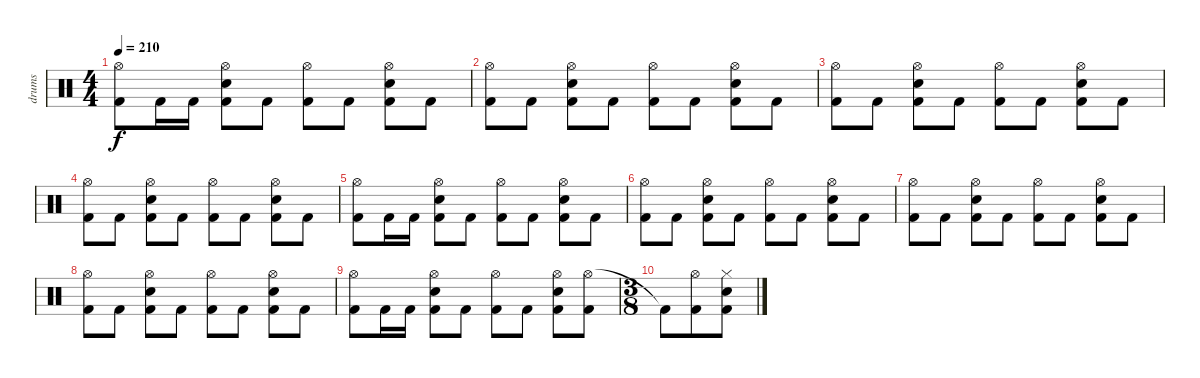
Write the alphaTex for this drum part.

\track ("drums" "drums") {solo instrument percussion}
\staff {score}
\articulation defaults
\ts (4 4)
\tempo 210
\clef neutral
\ks c
("Hi-Hat (open)" "Kick (hit) 2").8{dy f} "Kick (hit) 2".16 "Kick (hit) 2".16 ("Hi-Hat (open)" "Electric Snare (hit)" "Kick (hit) 2").8 "Kick (hit) 2".8 ("Hi-Hat (open)" "Kick (hit) 2").8 "Kick (hit) 2".8 ("Hi-Hat (open)" "Electric Snare (hit)" "Kick (hit) 2").8 "Kick (hit) 2".8 |
("Hi-Hat (open)" "Kick (hit) 2").8 "Kick (hit) 2".8 ("Hi-Hat (open)" "Electric Snare (hit)" "Kick (hit) 2").8 "Kick (hit) 2".8 ("Hi-Hat (open)" "Kick (hit) 2").8 "Kick (hit) 2".8 ("Hi-Hat (open)" "Electric Snare (hit)" "Kick (hit) 2").8 "Kick (hit) 2".8 |
("Hi-Hat (open)" "Kick (hit) 2").8 "Kick (hit) 2".8 ("Hi-Hat (open)" "Electric Snare (hit)" "Kick (hit) 2").8 "Kick (hit) 2".8 ("Hi-Hat (open)" "Kick (hit) 2").8 "Kick (hit) 2".8 ("Hi-Hat (open)" "Electric Snare (hit)" "Kick (hit) 2").8 "Kick (hit) 2".8 |
("Hi-Hat (open)" "Kick (hit) 2").8 "Kick (hit) 2".8 ("Hi-Hat (open)" "Electric Snare (hit)" "Kick (hit) 2").8 "Kick (hit) 2".8 ("Hi-Hat (open)" "Kick (hit) 2").8 "Kick (hit) 2".8 ("Hi-Hat (open)" "Electric Snare (hit)" "Kick (hit) 2").8 "Kick (hit) 2".8 |
("Hi-Hat (open)" "Kick (hit) 2").8 "Kick (hit) 2".16 "Kick (hit) 2".16 ("Hi-Hat (open)" "Electric Snare (hit)" "Kick (hit) 2").8 "Kick (hit) 2".8 ("Hi-Hat (open)" "Kick (hit) 2").8 "Kick (hit) 2".8 ("Hi-Hat (open)" "Electric Snare (hit)" "Kick (hit) 2").8 "Kick (hit) 2".8 |
("Hi-Hat (open)" "Kick (hit) 2").8 "Kick (hit) 2".8 ("Hi-Hat (open)" "Electric Snare (hit)" "Kick (hit) 2").8 "Kick (hit) 2".8 ("Hi-Hat (open)" "Kick (hit) 2").8 "Kick (hit) 2".8 ("Hi-Hat (open)" "Electric Snare (hit)" "Kick (hit) 2").8 "Kick (hit) 2".8 |
("Hi-Hat (open)" "Kick (hit) 2").8 "Kick (hit) 2".8 ("Hi-Hat (open)" "Electric Snare (hit)" "Kick (hit) 2").8 "Kick (hit) 2".8 ("Hi-Hat (open)" "Kick (hit) 2").8 "Kick (hit) 2".8 ("Hi-Hat (open)" "Electric Snare (hit)" "Kick (hit) 2").8 "Kick (hit) 2".8 |
("Hi-Hat (open)" "Kick (hit) 2").8 "Kick (hit) 2".8 ("Hi-Hat (open)" "Electric Snare (hit)" "Kick (hit) 2").8 "Kick (hit) 2".8 ("Hi-Hat (open)" "Kick (hit) 2").8 "Kick (hit) 2".8 ("Hi-Hat (open)" "Electric Snare (hit)" "Kick (hit) 2").8 "Kick (hit) 2".8 |
("Hi-Hat (open)" "Kick (hit) 2").8 "Kick (hit) 2".16 "Kick (hit) 2".16 ("Hi-Hat (open)" "Electric Snare (hit)" "Kick (hit) 2").8 "Kick (hit) 2".8 ("Hi-Hat (open)" "Kick (hit) 2").8 "Kick (hit) 2".8 ("Hi-Hat (open)" "Electric Snare (hit)" "Kick (hit) 2").8 ("Hi-Hat (open)" "Kick (hit) 2").8 |
\ts (3 8)
"Kick (hit) 2"{t}.8 ("Hi-Hat (open)" "Kick (hit) 2").8 ("Hi-Hat (closed)" "Electric Snare (hit)" "Kick (hit) 2").8
